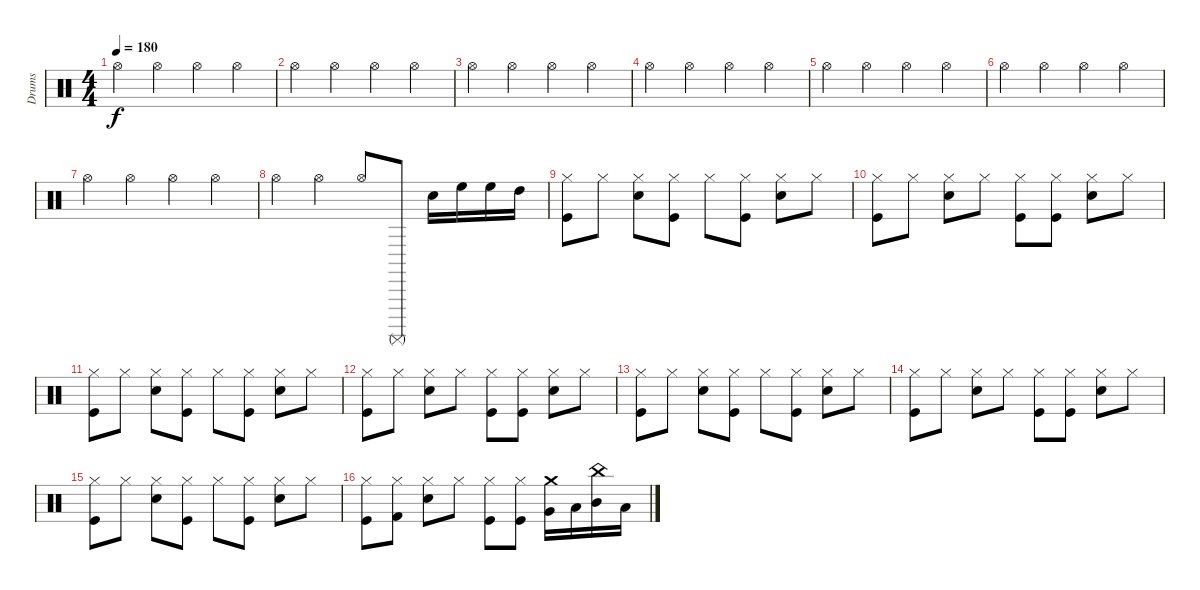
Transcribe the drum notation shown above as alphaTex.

\track ("Drums" "Drums") {instrument percussion}
\staff {score}
\articulation defaults
\ts (4 4)
\tempo 180
\clef neutral
\ks c "Hi-Hat (open)".4{dy f} "Hi-Hat (open)".4 "Hi-Hat (open)".4 "Hi-Hat (open)".4
|
"Hi-Hat (open)".4 "Hi-Hat (open)".4 "Hi-Hat (open)".4 "Hi-Hat (open)".4 |
"Hi-Hat (open)".4 "Hi-Hat (open)".4 "Hi-Hat (open)".4 "Hi-Hat (open)".4 |
"Hi-Hat (open)".4 "Hi-Hat (open)".4 "Hi-Hat (open)".4 "Hi-Hat (open)".4 |
"Hi-Hat (open)".4 "Hi-Hat (open)".4 "Hi-Hat (open)".4 "Hi-Hat (open)".4 |
"Hi-Hat (open)".4 "Hi-Hat (open)".4 "Hi-Hat (open)".4 "Hi-Hat (open)".4 |
"Hi-Hat (open)".4 "Hi-Hat (open)".4 "Hi-Hat (open)".4 "Hi-Hat (open)".4 |
"Hi-Hat (open)".4 "Hi-Hat (open)".4 "Hi-Hat (open)".8 "Surdo (mute)".8 "Snare (hit) 2".16 "High Floor Tom (hit)".16 "High Floor Tom (hit)".16 "High Tom (hit)".16 |
("Hi-Hat (closed)" "Kick (hit)").8 "Hi-Hat (closed)".8 ("Hi-Hat (closed)" "Snare (hit) 2").8 ("Hi-Hat (closed)" "Kick (hit)").8 "Hi-Hat (closed)".8 ("Hi-Hat (closed)" "Kick (hit)").8 ("Hi-Hat (closed)" "Snare (hit) 2").8 "Hi-Hat (closed)".8 |
("Hi-Hat (closed)" "Kick (hit)").8 "Hi-Hat (closed)".8 ("Hi-Hat (closed)" "Snare (hit) 2").8 "Hi-Hat (closed)".8 ("Hi-Hat (closed)" "Kick (hit)").8 ("Hi-Hat (closed)" "Kick (hit)").8 ("Hi-Hat (closed)" "Snare (hit) 2").8 "Hi-Hat (closed)".8 |
("Hi-Hat (closed)" "Kick (hit)").8 "Hi-Hat (closed)".8 ("Hi-Hat (closed)" "Snare (hit) 2").8 ("Hi-Hat (closed)" "Kick (hit)").8 "Hi-Hat (closed)".8 ("Hi-Hat (closed)" "Kick (hit)").8 ("Hi-Hat (closed)" "Snare (hit) 2").8 "Hi-Hat (closed)".8 |
("Hi-Hat (closed)" "Kick (hit)").8 "Hi-Hat (closed)".8 ("Hi-Hat (closed)" "Snare (hit) 2").8 "Hi-Hat (closed)".8 ("Hi-Hat (closed)" "Kick (hit)").8 ("Hi-Hat (closed)" "Kick (hit)").8 ("Hi-Hat (closed)" "Snare (hit) 2").8 "Hi-Hat (closed)".8 |
("Hi-Hat (closed)" "Kick (hit)").8 "Hi-Hat (closed)".8 ("Hi-Hat (closed)" "Snare (hit) 2").8 ("Hi-Hat (closed)" "Kick (hit)").8 "Hi-Hat (closed)".8 ("Hi-Hat (closed)" "Kick (hit)").8 ("Hi-Hat (closed)" "Snare (hit) 2").8 "Hi-Hat (closed)".8 |
("Hi-Hat (closed)" "Kick (hit)").8 "Hi-Hat (closed)".8 ("Hi-Hat (closed)" "Snare (hit) 2").8 "Hi-Hat (closed)".8 ("Hi-Hat (closed)" "Kick (hit)").8 ("Hi-Hat (closed)" "Kick (hit)").8 ("Hi-Hat (closed)" "Snare (hit) 2").8 "Hi-Hat (closed)".8 |
("Hi-Hat (closed)" "Kick (hit)").8 "Hi-Hat (closed)".8 ("Hi-Hat (closed)" "Snare (hit) 2").8 ("Hi-Hat (closed)" "Kick (hit)").8 "Hi-Hat (closed)".8 ("Hi-Hat (closed)" "Kick (hit)").8 ("Hi-Hat (closed)" "Snare (hit) 2").8 "Hi-Hat (closed)".8 |
("Hi-Hat (closed)" "Kick (hit)").8 ("Hi-Hat (closed)" "Kick (hit) 2").8 ("Hi-Hat (closed)" "Snare (hit) 2").8 "Hi-Hat (closed)".8 ("Hi-Hat (closed)" "Kick (hit)").8 ("Hi-Hat (closed)" "Kick (hit)").8 ("Crash medium (hit)" "Very Low Tom (hit)").16 "Low Tom (hit)".16 ("Mid Tom (hit)" "China (hit)").16 "Low Tom (hit)".16
